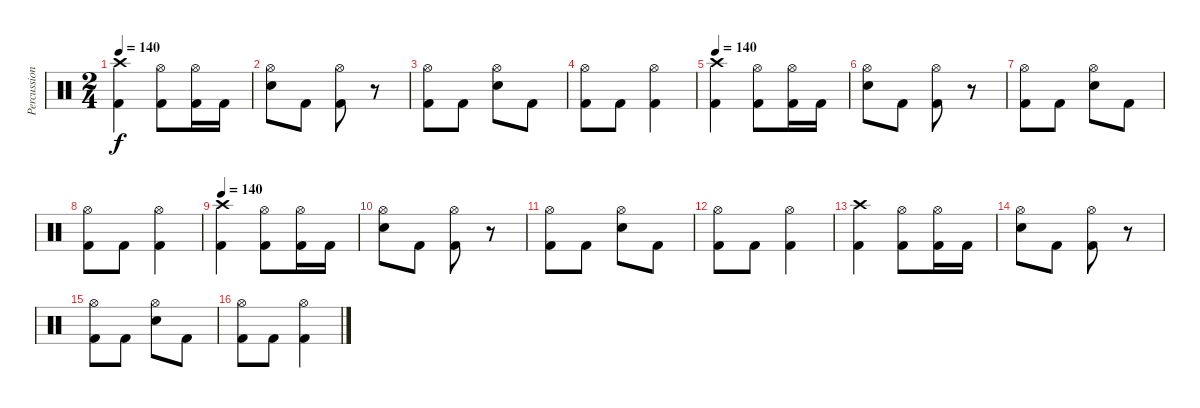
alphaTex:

\track ("Percussion" "Percussion") {instrument percussion}
\staff {score}
\articulation defaults
\ts (2 4)
\tempo 140
\clef neutral
\ks c
("Crash high (hit)" "Kick (hit) 2").4{dy f} ("Hi-Hat (open)" "Kick (hit) 2").8 ("Hi-Hat (open)" "Kick (hit) 2").16 "Kick (hit) 2".16 |
("Hi-Hat (open)" "Electric Snare (hit)").8 "Kick (hit) 2".8 ("Hi-Hat (open)" "Kick (hit) 2").8 r.8 |
("Hi-Hat (open)" "Kick (hit) 2").8 "Kick (hit) 2".8 ("Hi-Hat (open)" "Electric Snare (hit)").8 "Kick (hit) 2".8 |
("Hi-Hat (open)" "Kick (hit) 2").8 "Kick (hit) 2".8 ("Hi-Hat (open)" "Kick (hit) 2").4 |
\tempo 140
("Crash high (hit)" "Kick (hit) 2").4 ("Hi-Hat (open)" "Kick (hit) 2").8 ("Hi-Hat (open)" "Kick (hit) 2").16 "Kick (hit) 2".16 |
("Hi-Hat (open)" "Electric Snare (hit)").8 "Kick (hit) 2".8 ("Hi-Hat (open)" "Kick (hit) 2").8 r.8 |
("Hi-Hat (open)" "Kick (hit) 2").8 "Kick (hit) 2".8 ("Hi-Hat (open)" "Electric Snare (hit)").8 "Kick (hit) 2".8 |
("Hi-Hat (open)" "Kick (hit) 2").8 "Kick (hit) 2".8 ("Hi-Hat (open)" "Kick (hit) 2").4 |
\tempo 140
("Crash high (hit)" "Kick (hit) 2").4 ("Hi-Hat (open)" "Kick (hit) 2").8 ("Hi-Hat (open)" "Kick (hit) 2").16 "Kick (hit) 2".16 |
("Hi-Hat (open)" "Electric Snare (hit)").8 "Kick (hit) 2".8 ("Hi-Hat (open)" "Kick (hit) 2").8 r.8 |
("Hi-Hat (open)" "Kick (hit) 2").8 "Kick (hit) 2".8 ("Hi-Hat (open)" "Electric Snare (hit)").8 "Kick (hit) 2".8 |
("Hi-Hat (open)" "Kick (hit) 2").8 "Kick (hit) 2".8 ("Hi-Hat (open)" "Kick (hit) 2").4 |
("Crash high (hit)" "Kick (hit) 2").4 ("Hi-Hat (open)" "Kick (hit) 2").8 ("Hi-Hat (open)" "Kick (hit) 2").16 "Kick (hit) 2".16 |
("Hi-Hat (open)" "Electric Snare (hit)").8 "Kick (hit) 2".8 ("Hi-Hat (open)" "Kick (hit) 2").8 r.8 |
("Hi-Hat (open)" "Kick (hit) 2").8 "Kick (hit) 2".8 ("Hi-Hat (open)" "Electric Snare (hit)").8 "Kick (hit) 2".8 |
("Hi-Hat (open)" "Kick (hit) 2").8 "Kick (hit) 2".8 ("Hi-Hat (open)" "Kick (hit) 2").4
